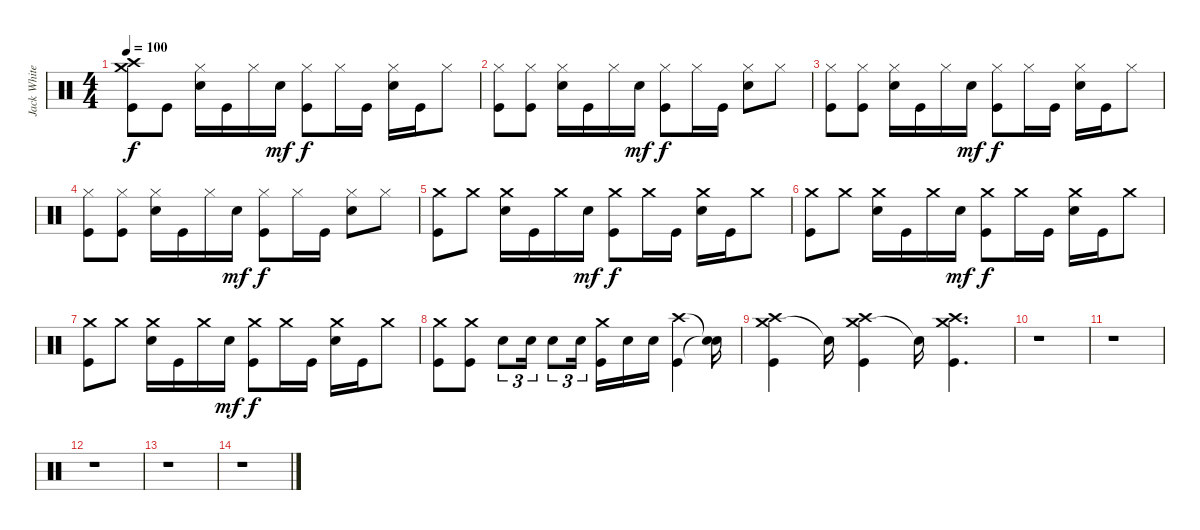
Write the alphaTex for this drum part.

\track ("Jack White" "Jack White") {instrument percussion}
\staff
\articulation defaults
\ts (4 4)
\tempo 100
\clef neutral
\ks c
("Crash medium (hit)" "Crash high (hit)" "Kick (hit)").8{dy f} "Kick (hit)".8 ("Hi-Hat (closed)" "Snare (hit) 2").16 "Kick (hit)".16 "Hi-Hat (closed)".16 "Snare (hit) 2".16{dy mf} ("Hi-Hat (closed)" "Kick (hit)").8{dy f} "Hi-Hat (closed)".16 "Kick (hit)".16 ("Hi-Hat (closed)" "Snare (hit) 2").16 "Kick (hit)".16 "Hi-Hat (closed)".8 |
("Hi-Hat (closed)" "Kick (hit)").8 ("Hi-Hat (closed)" "Kick (hit)").8 ("Hi-Hat (closed)" "Snare (hit) 2").16 "Kick (hit)".16 "Hi-Hat (closed)".16 "Snare (hit) 2".16{dy mf} ("Hi-Hat (closed)" "Kick (hit)").8{dy f} "Hi-Hat (closed)".16 "Kick (hit)".16 ("Hi-Hat (closed)" "Snare (hit) 2").8 "Hi-Hat (closed)".8 |
("Hi-Hat (closed)" "Kick (hit)").8 ("Hi-Hat (closed)" "Kick (hit)").8 ("Hi-Hat (closed)" "Snare (hit) 2").16 "Kick (hit)".16 "Hi-Hat (closed)".16 "Snare (hit) 2".16{dy mf} ("Hi-Hat (closed)" "Kick (hit)").8{dy f} "Hi-Hat (closed)".16 "Kick (hit)".16 ("Hi-Hat (closed)" "Snare (hit) 2").16 "Kick (hit)".16 "Hi-Hat (closed)".8 |
("Hi-Hat (closed)" "Kick (hit)").8 ("Hi-Hat (closed)" "Kick (hit)").8 ("Hi-Hat (closed)" "Snare (hit) 2").16 "Kick (hit)".16 "Hi-Hat (closed)".16 "Snare (hit) 2".16{dy mf} ("Hi-Hat (closed)" "Kick (hit)").8{dy f} "Hi-Hat (closed)".16 "Kick (hit)".16 ("Hi-Hat (closed)" "Snare (hit) 2").8 "Hi-Hat (closed)".8 |
("Crash medium (hit)" "Kick (hit)").8 "Crash medium (hit)".8 ("Crash medium (hit)" "Snare (hit) 2").16 "Kick (hit)".16 "Crash medium (hit)".16 "Snare (hit) 2".16{dy mf} ("Crash medium (hit)" "Kick (hit)").8{dy f} "Crash medium (hit)".16 "Kick (hit)".16 ("Crash medium (hit)" "Snare (hit) 2").16 "Kick (hit)".16 "Crash medium (hit)".8 |
("Crash medium (hit)" "Kick (hit)").8 "Crash medium (hit)".8 ("Crash medium (hit)" "Snare (hit) 2").16 "Kick (hit)".16 "Crash medium (hit)".16 "Snare (hit) 2".16{dy mf} ("Crash medium (hit)" "Kick (hit)").8{dy f} "Crash medium (hit)".16 "Kick (hit)".16 ("Crash medium (hit)" "Snare (hit) 2").16 "Kick (hit)".16 "Crash medium (hit)".8 |
("Crash medium (hit)" "Kick (hit)").8 "Crash medium (hit)".8 ("Crash medium (hit)" "Snare (hit) 2").16 "Kick (hit)".16 "Crash medium (hit)".16 "Snare (hit) 2".16{dy mf} ("Crash medium (hit)" "Kick (hit)").8{dy f} "Crash medium (hit)".16 "Kick (hit)".16 ("Crash medium (hit)" "Snare (hit) 2").16 "Kick (hit)".16 "Crash medium (hit)".8 |
("Crash medium (hit)" "Kick (hit)").8 ("Crash medium (hit)" "Kick (hit)").8 "Snare (hit) 2".8{tu (3 2)} "Snare (hit) 2".16{tu (3 2)} "Snare (hit) 2".8{tu (3 2)} "Snare (hit) 2".16{tu (3 2)} ("Crash medium (hit)" "Kick (hit)").16 "Snare (hit) 2".16 "Snare (hit) 2".16 ("Crash high (hit)" "Kick (hit)").4 ("Snare (hit)"{t} "Snare (hit)"{t}).16 |
("Crash medium (hit)" "Crash high (hit)" "Kick (hit)").4 "Snare (hit)"{t}.16 ("Crash medium (hit)" "Crash high (hit)" "Kick (hit)").4 "Snare (hit)"{t}.16 ("Crash medium (hit)" "Crash high (hit)" "Kick (hit)").4{d} |
r.1 |
r.1 |
r.1 |
r.1 |
r.1
